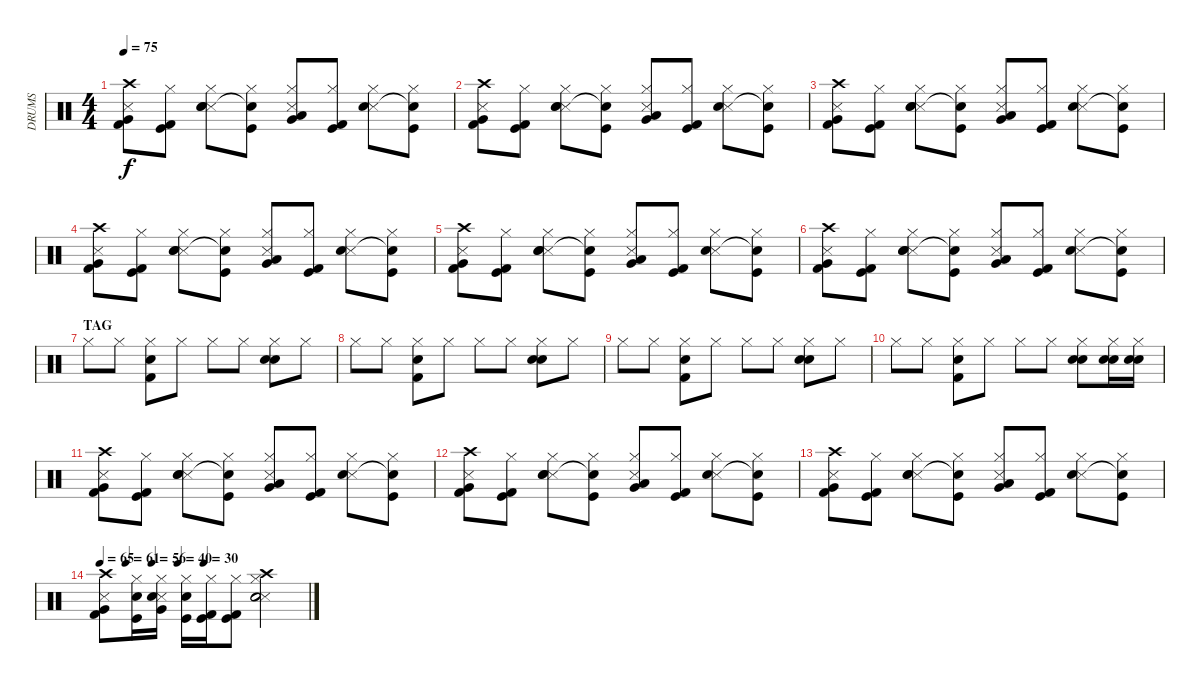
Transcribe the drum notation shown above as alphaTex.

\track ("DRUMS" "DRUMS") {instrument percussion}
\staff {score}
\articulation defaults
\ts (4 4)
\tempo 75
\clef neutral
\ks c
("Crash high (hit)" "Snare (side stick) 3" "Very Low Tom (hit)" "Kick (hit) 2").8{dy f} ("Hi-Hat (closed)" "Kick (hit)" "Kick (hit) 2").8 ("Hi-Hat (closed)" "Snare (side stick) 3" "Electric Snare (hit)" "Snare (hit) 2").8 ("Hi-Hat (closed)" "Kick (hit)" "Snare (hit)"{t}).8 ("Hi-Hat (closed)" "Snare (side stick) 3" "Very Low Tom (hit)" "Low Floor Tom (hit)").8 ("Hi-Hat (closed)" "Kick (hit)" "Kick (hit) 2").8 ("Hi-Hat (closed)" "Snare (side stick) 3" "Electric Snare (hit)").8 ("Hi-Hat (closed)" "Kick (hit)" "Snare (hit)"{t}).8 |
("Crash high (hit)" "Snare (side stick) 3" "Very Low Tom (hit)" "Kick (hit) 2").8 ("Hi-Hat (closed)" "Kick (hit)" "Kick (hit) 2").8 ("Hi-Hat (closed)" "Snare (side stick) 3" "Electric Snare (hit)" "Snare (hit) 2").8 ("Hi-Hat (closed)" "Kick (hit)" "Snare (hit)"{t}).8 ("Hi-Hat (closed)" "Snare (side stick) 3" "Very Low Tom (hit)" "Low Floor Tom (hit)").8 ("Hi-Hat (closed)" "Kick (hit)" "Kick (hit) 2").8 ("Hi-Hat (closed)" "Snare (side stick) 3" "Electric Snare (hit)").8 ("Hi-Hat (closed)" "Kick (hit)" "Snare (hit)"{t}).8 |
("Crash high (hit)" "Snare (side stick) 3" "Very Low Tom (hit)" "Kick (hit) 2").8 ("Hi-Hat (closed)" "Kick (hit)" "Kick (hit) 2").8 ("Hi-Hat (closed)" "Snare (side stick) 3" "Electric Snare (hit)" "Snare (hit) 2").8 ("Hi-Hat (closed)" "Kick (hit)" "Snare (hit)"{t}).8 ("Hi-Hat (closed)" "Snare (side stick) 3" "Very Low Tom (hit)" "Low Floor Tom (hit)").8 ("Hi-Hat (closed)" "Kick (hit)" "Kick (hit) 2").8 ("Hi-Hat (closed)" "Snare (side stick) 3" "Electric Snare (hit)").8 ("Hi-Hat (closed)" "Kick (hit)" "Snare (hit)"{t}).8 |
("Crash high (hit)" "Snare (side stick) 3" "Very Low Tom (hit)" "Kick (hit) 2").8 ("Hi-Hat (closed)" "Kick (hit)" "Kick (hit) 2").8 ("Hi-Hat (closed)" "Snare (side stick) 3" "Electric Snare (hit)" "Snare (hit) 2").8 ("Hi-Hat (closed)" "Kick (hit)" "Snare (hit)"{t}).8 ("Hi-Hat (closed)" "Snare (side stick) 3" "Very Low Tom (hit)" "Low Floor Tom (hit)").8 ("Hi-Hat (closed)" "Kick (hit)" "Kick (hit) 2").8 ("Hi-Hat (closed)" "Snare (side stick) 3" "Electric Snare (hit)").8 ("Hi-Hat (closed)" "Kick (hit)" "Snare (hit)"{t}).8 |
("Crash high (hit)" "Snare (side stick) 3" "Very Low Tom (hit)" "Kick (hit) 2").8 ("Hi-Hat (closed)" "Kick (hit)" "Kick (hit) 2").8 ("Hi-Hat (closed)" "Snare (side stick) 3" "Electric Snare (hit)" "Snare (hit) 2").8 ("Hi-Hat (closed)" "Kick (hit)" "Snare (hit)"{t}).8 ("Hi-Hat (closed)" "Snare (side stick) 3" "Very Low Tom (hit)" "Low Floor Tom (hit)").8 ("Hi-Hat (closed)" "Kick (hit)" "Kick (hit) 2").8 ("Hi-Hat (closed)" "Snare (side stick) 3" "Electric Snare (hit)").8 ("Hi-Hat (closed)" "Kick (hit)" "Snare (hit)"{t}).8 |
("Crash high (hit)" "Snare (side stick) 3" "Very Low Tom (hit)" "Kick (hit) 2").8 ("Hi-Hat (closed)" "Kick (hit)" "Kick (hit) 2").8 ("Hi-Hat (closed)" "Snare (side stick) 3" "Electric Snare (hit)" "Snare (hit) 2").8 ("Hi-Hat (closed)" "Kick (hit)" "Snare (hit)"{t}).8 ("Hi-Hat (closed)" "Snare (side stick) 3" "Very Low Tom (hit)" "Low Floor Tom (hit)").8 ("Hi-Hat (closed)" "Kick (hit)" "Kick (hit) 2").8 ("Hi-Hat (closed)" "Snare (side stick) 3" "Electric Snare (hit)").8 ("Hi-Hat (closed)" "Kick (hit)" "Snare (hit)"{t}).8 |
\section ("" "TAG")
"Hi-Hat (closed)".8 "Hi-Hat (closed)".8 ("Hi-Hat (closed)" "Electric Snare (hit)" "Kick (hit) 2").8 "Hi-Hat (closed)".8 "Hi-Hat (closed)".8 "Hi-Hat (closed)".8 ("Hi-Hat (closed)" "Electric Snare (hit)" "Snare (hit) 2").8 "Hi-Hat (closed)".8 |
"Hi-Hat (closed)".8 "Hi-Hat (closed)".8 ("Hi-Hat (closed)" "Electric Snare (hit)" "Kick (hit) 2").8 "Hi-Hat (closed)".8 "Hi-Hat (closed)".8 "Hi-Hat (closed)".8 ("Hi-Hat (closed)" "Electric Snare (hit)" "Snare (hit) 2").8 "Hi-Hat (closed)".8 |
"Hi-Hat (closed)".8 "Hi-Hat (closed)".8 ("Hi-Hat (closed)" "Electric Snare (hit)" "Kick (hit) 2").8 "Hi-Hat (closed)".8 "Hi-Hat (closed)".8 "Hi-Hat (closed)".8 ("Hi-Hat (closed)" "Electric Snare (hit)" "Snare (hit) 2").8 "Hi-Hat (closed)".8 |
"Hi-Hat (closed)".8 "Hi-Hat (closed)".8 ("Hi-Hat (closed)" "Electric Snare (hit)" "Kick (hit) 2").8 "Hi-Hat (closed)".8 "Hi-Hat (closed)".8 "Hi-Hat (closed)".8 ("Hi-Hat (closed)" "Electric Snare (hit)" "Snare (hit) 2").8 ("Hi-Hat (closed)" "Electric Snare (hit)" "Snare (hit) 2").16 ("Hi-Hat (closed)" "Electric Snare (hit)" "Snare (hit) 2").16 |
("Crash high (hit)" "Snare (side stick) 3" "Very Low Tom (hit)" "Kick (hit) 2").8 ("Hi-Hat (closed)" "Kick (hit)" "Kick (hit) 2").8 ("Hi-Hat (closed)" "Snare (side stick) 3" "Electric Snare (hit)" "Snare (hit) 2").8 ("Hi-Hat (closed)" "Kick (hit)" "Snare (hit)"{t}).8 ("Hi-Hat (closed)" "Snare (side stick) 3" "Very Low Tom (hit)" "Low Floor Tom (hit)").8 ("Hi-Hat (closed)" "Kick (hit)" "Kick (hit) 2").8 ("Hi-Hat (closed)" "Snare (side stick) 3" "Electric Snare (hit)").8 ("Hi-Hat (closed)" "Kick (hit)" "Snare (hit)"{t}).8 |
("Crash high (hit)" "Snare (side stick) 3" "Very Low Tom (hit)" "Kick (hit) 2").8 ("Hi-Hat (closed)" "Kick (hit)" "Kick (hit) 2").8 ("Hi-Hat (closed)" "Snare (side stick) 3" "Electric Snare (hit)" "Snare (hit) 2").8 ("Hi-Hat (closed)" "Kick (hit)" "Snare (hit)"{t}).8 ("Hi-Hat (closed)" "Snare (side stick) 3" "Very Low Tom (hit)" "Low Floor Tom (hit)").8 ("Hi-Hat (closed)" "Kick (hit)" "Kick (hit) 2").8 ("Hi-Hat (closed)" "Snare (side stick) 3" "Electric Snare (hit)").8 ("Hi-Hat (closed)" "Kick (hit)" "Snare (hit)"{t}).8 |
("Crash high (hit)" "Snare (side stick) 3" "Very Low Tom (hit)" "Kick (hit) 2").8 ("Hi-Hat (closed)" "Kick (hit)" "Kick (hit) 2").8 ("Hi-Hat (closed)" "Snare (side stick) 3" "Electric Snare (hit)" "Snare (hit) 2").8 ("Hi-Hat (closed)" "Kick (hit)" "Snare (hit)"{t}).8 ("Hi-Hat (closed)" "Snare (side stick) 3" "Very Low Tom (hit)" "Low Floor Tom (hit)").8 ("Hi-Hat (closed)" "Kick (hit)" "Kick (hit) 2").8 ("Hi-Hat (closed)" "Snare (side stick) 3" "Electric Snare (hit)").8 ("Hi-Hat (closed)" "Kick (hit)" "Snare (hit)"{t}).8 |
\tempo 65
\tempo (61 0.125)
\tempo (56 0.25)
\tempo (40 0.375)
\tempo (30 0.5)
("Crash high (hit)" "Snare (side stick) 3" "Very Low Tom (hit)" "Kick (hit) 2").8 ("Hi-Hat (closed)" "Kick (hit)" "Electric Snare (hit)").16 ("Hi-Hat (closed)" "Snare (side stick) 3" "Very Low Tom (hit)" "Snare (hit) 2").16 ("Hi-Hat (closed)" "Kick (hit)" "Electric Snare (hit)").16 ("Hi-Hat (closed)" "Kick (hit)" "Kick (hit) 2").16 ("Hi-Hat (closed)" "Kick (hit)" "Kick (hit) 2").8 ("Hi-Hat (closed)" "Crash high (hit)" "Snare (side stick) 3" "Electric Snare (hit)" "Snare (hit)").2
